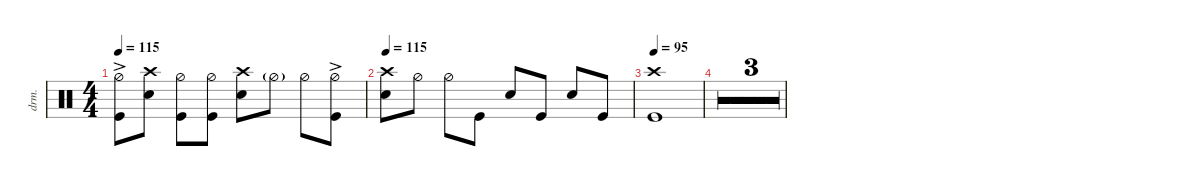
\defaultSystemsLayout 4
\hideDynamics
\bracketExtendMode nobrackets
\otherSystemsTrackNameOrientation horizontal
\track ("Drums" "drm.") {multiBarRest instrument percussion}
\staff
\articulation defaults
\ts (4 4)
\tempo 115
\clef neutral
\ks c
("Kick (hit)" "Hi-Hat (half)"{ac}).8{dy f} ("Snare (hit) 2" "Crash high (hit)").8 ("Kick (hit)" "Hi-Hat (half)").8 ("Kick (hit)" "Hi-Hat (half)").8 ("Snare (hit) 2" "Crash high (hit)").8 "Hi-Hat (half)"{g}.8 "Hi-Hat (half)".8 ("Kick (hit)" "Hi-Hat (half)"{ac}).8 |
\tempo 115
("Snare (hit) 2" "Crash high (hit)").8 "Hi-Hat (half)".8 "Hi-Hat (half)".8 "Kick (hit)".8 "Snare (hit) 2".8 "Kick (hit)".8 "Snare (hit) 2".8 "Kick (hit)".8 |
\tempo (95 0.00625)
("Kick (hit)" "Crash high (hit)").1 |
r.1 |
r.1 |
r.1
